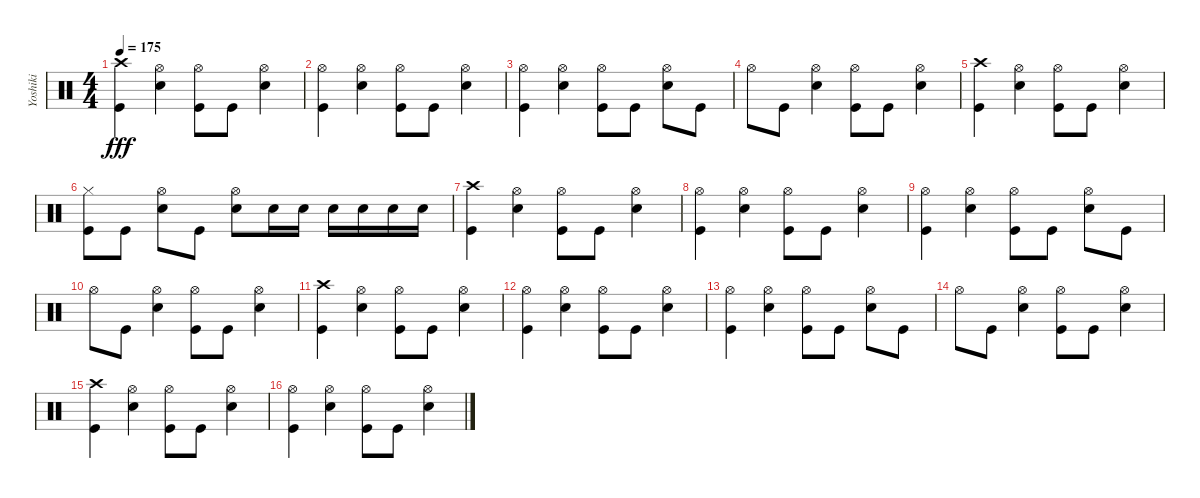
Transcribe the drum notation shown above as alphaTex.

\track ("Yoshiki" "Yoshiki") {instrument percussion}
\staff {score}
\articulation defaults
\ts (4 4)
\tempo 175
\clef neutral
\ks c
("Crash high (hit)" "Kick (hit)").4{dy fff} ("Hi-Hat (open)" "Snare (hit) 2").4 ("Hi-Hat (open)" "Kick (hit)").8 "Kick (hit)".8 ("Hi-Hat (open)" "Snare (hit) 2").4 |
("Hi-Hat (open)" "Kick (hit)").4 ("Hi-Hat (open)" "Snare (hit) 2").4 ("Hi-Hat (open)" "Kick (hit)").8 "Kick (hit)".8 ("Hi-Hat (open)" "Snare (hit) 2").4 |
("Hi-Hat (open)" "Kick (hit)").4 ("Hi-Hat (open)" "Snare (hit) 2").4 ("Hi-Hat (open)" "Kick (hit)").8 "Kick (hit)".8 ("Hi-Hat (open)" "Snare (hit) 2").8 "Kick (hit)".8 |
"Hi-Hat (open)".8 "Kick (hit)".8 ("Hi-Hat (open)" "Snare (hit) 2").4 ("Hi-Hat (open)" "Kick (hit)").8 "Kick (hit)".8 ("Hi-Hat (open)" "Snare (hit) 2").4 |
("Crash high (hit)" "Kick (hit)").4 ("Hi-Hat (open)" "Snare (hit) 2").4 ("Hi-Hat (open)" "Kick (hit)").8 "Kick (hit)".8 ("Hi-Hat (open)" "Snare (hit) 2").4 |
("Hi-Hat (closed)" "Kick (hit)").8 "Kick (hit)".8 ("Hi-Hat (open)" "Snare (hit) 2").8 "Kick (hit)".8 ("Hi-Hat (open)" "Snare (hit) 2").8 "Snare (hit) 2".16 "Snare (hit) 2".16 "Snare (hit) 2".16 "Snare (hit) 2".16 "Snare (hit) 2".16 "Snare (hit) 2".16 |
("Crash high (hit)" "Kick (hit)").4 ("Hi-Hat (open)" "Snare (hit) 2").4 ("Hi-Hat (open)" "Kick (hit)").8 "Kick (hit)".8 ("Hi-Hat (open)" "Snare (hit) 2").4 |
("Hi-Hat (open)" "Kick (hit)").4 ("Hi-Hat (open)" "Snare (hit) 2").4 ("Hi-Hat (open)" "Kick (hit)").8 "Kick (hit)".8 ("Hi-Hat (open)" "Snare (hit) 2").4 |
("Hi-Hat (open)" "Kick (hit)").4 ("Hi-Hat (open)" "Snare (hit) 2").4 ("Hi-Hat (open)" "Kick (hit)").8 "Kick (hit)".8 ("Hi-Hat (open)" "Snare (hit) 2").8 "Kick (hit)".8 |
"Hi-Hat (open)".8 "Kick (hit)".8 ("Hi-Hat (open)" "Snare (hit) 2").4 ("Hi-Hat (open)" "Kick (hit)").8 "Kick (hit)".8 ("Hi-Hat (open)" "Snare (hit) 2").4 |
("Crash high (hit)" "Kick (hit)").4 ("Hi-Hat (open)" "Snare (hit) 2").4 ("Hi-Hat (open)" "Kick (hit)").8 "Kick (hit)".8 ("Hi-Hat (open)" "Snare (hit) 2").4 |
("Hi-Hat (open)" "Kick (hit)").4 ("Hi-Hat (open)" "Snare (hit) 2").4 ("Hi-Hat (open)" "Kick (hit)").8 "Kick (hit)".8 ("Hi-Hat (open)" "Snare (hit) 2").4 |
("Hi-Hat (open)" "Kick (hit)").4 ("Hi-Hat (open)" "Snare (hit) 2").4 ("Hi-Hat (open)" "Kick (hit)").8 "Kick (hit)".8 ("Hi-Hat (open)" "Snare (hit) 2").8 "Kick (hit)".8 |
"Hi-Hat (open)".8 "Kick (hit)".8 ("Hi-Hat (open)" "Snare (hit) 2").4 ("Hi-Hat (open)" "Kick (hit)").8 "Kick (hit)".8 ("Hi-Hat (open)" "Snare (hit) 2").4 |
("Crash high (hit)" "Kick (hit)").4 ("Hi-Hat (open)" "Snare (hit) 2").4 ("Hi-Hat (open)" "Kick (hit)").8 "Kick (hit)".8 ("Hi-Hat (open)" "Snare (hit) 2").4 |
("Hi-Hat (open)" "Kick (hit)").4 ("Hi-Hat (open)" "Snare (hit) 2").4 ("Hi-Hat (open)" "Kick (hit)").8 "Kick (hit)".8 ("Hi-Hat (open)" "Snare (hit) 2").4
